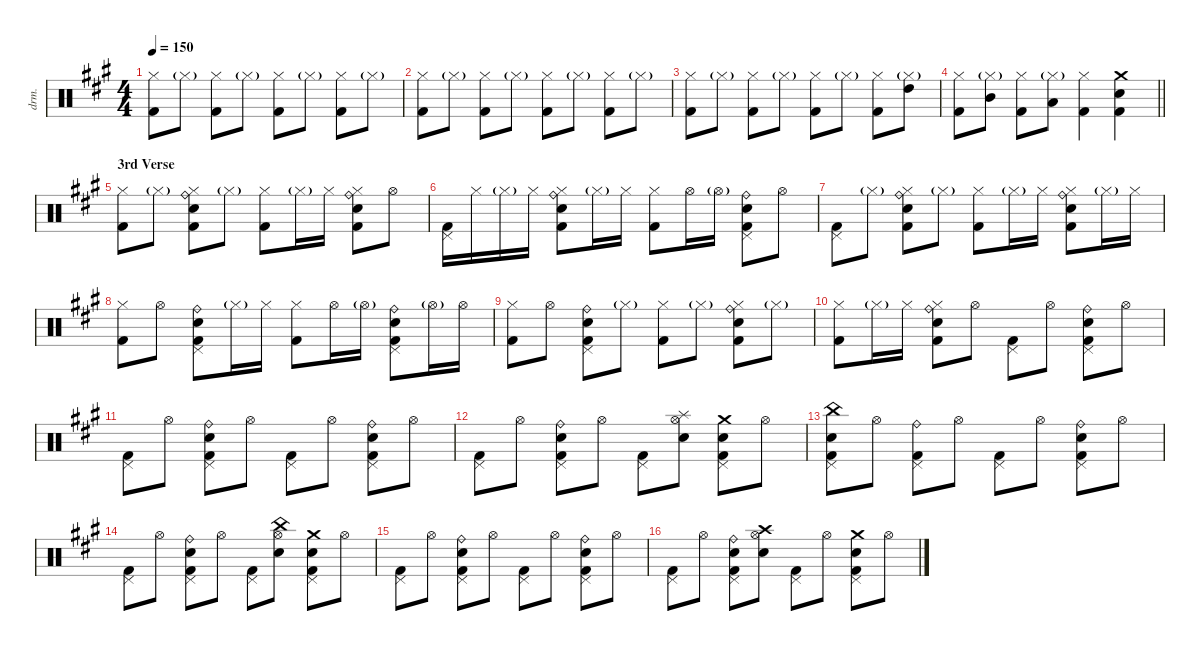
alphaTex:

\defaultSystemsLayout 4
\hideDynamics
\bracketExtendMode nobrackets
\otherSystemsTrackNameOrientation horizontal
\track ("Drums" "drm.") {instrument percussion}
\staff {score}
\articulation defaults
\ts (4 4)
\tempo 150
\clef neutral
\ks a
("Kick (hit) 2"{acc forcenatural} "Hi-Hat (closed)"{acc forcenatural}).8{dy fff} "Hi-Hat (closed)"{g acc forcenatural}.8{dy p} ("Kick (hit) 2"{acc forcenatural} "Hi-Hat (closed)"{acc forcenatural}).8{dy fff} "Hi-Hat (closed)"{g acc forcenatural}.8{dy p} ("Kick (hit) 2"{acc forcenatural} "Hi-Hat (closed)"{acc forcenatural}).8{dy fff} "Hi-Hat (closed)"{g acc forcenatural}.8{dy p} ("Kick (hit) 2"{acc forcenatural} "Hi-Hat (closed)"{acc forcenatural}).8{dy fff} "Hi-Hat (closed)"{g acc forcenatural}.8{dy p} |
("Kick (hit) 2"{acc forcenatural} "Hi-Hat (closed)"{acc forcenatural}).8{dy fff} "Hi-Hat (closed)"{g acc forcenatural}.8{dy p} ("Kick (hit) 2"{acc forcenatural} "Hi-Hat (closed)"{acc forcenatural}).8{dy fff} "Hi-Hat (closed)"{g acc forcenatural}.8{dy p} ("Kick (hit) 2"{acc forcenatural} "Hi-Hat (closed)"{acc forcenatural}).8{dy fff} "Hi-Hat (closed)"{g acc forcenatural}.8{dy p} ("Kick (hit) 2"{acc forcenatural} "Hi-Hat (closed)"{acc forcenatural}).8{dy fff} "Hi-Hat (closed)"{g acc forcenatural}.8{dy p} |
("Kick (hit) 2"{acc forcenatural} "Hi-Hat (closed)"{acc forcenatural}).8{dy fff} "Hi-Hat (closed)"{g acc forcenatural}.8{dy p} ("Kick (hit) 2"{acc forcenatural} "Hi-Hat (closed)"{acc forcenatural}).8{dy fff} "Hi-Hat (closed)"{g acc forcenatural}.8{dy p} ("Kick (hit) 2"{acc forcenatural} "Hi-Hat (closed)"{acc forcenatural}).8{dy fff} "Hi-Hat (closed)"{g acc forcenatural}.8{dy p} ("Kick (hit) 2"{acc forcenatural} "Hi-Hat (closed)"{acc forcenatural}).8{dy fff} ("Hi-Hat (closed)"{g acc forcenatural} "High Tom (hit)"{acc forcenatural}).8{dy mp} |
\barLineRight lightlight
("Kick (hit) 2"{acc forcenatural} "Hi-Hat (closed)"{acc forcenatural}).8{dy fff} ("Hi-Hat (closed)"{g acc forcenatural} "Mid Tom (hit)"{acc forcenatural}).8{dy mf} ("Kick (hit) 2"{acc forcenatural} "Hi-Hat (closed)"{acc forcenatural}).8{dy fff} ("Hi-Hat (closed)"{g acc forcenatural} "Low Tom (hit)"{acc forcenatural}).8{dy f} ("Kick (hit) 2"{acc forcenatural} "Hi-Hat (closed)"{acc forcenatural}).4{dy fff} ("Kick (hit) 2"{acc forcenatural} "Snare (hit) 2"{acc forcenatural} "Crash medium (hit)"{acc forcenatural}).4 |
\section ("" "3rd Verse")
("Kick (hit) 2"{acc forcenatural} "Hi-Hat (closed)"{acc forcenatural}).8 "Hi-Hat (closed)"{g acc forcenatural}.8{dy p} ("Kick (hit) 2"{acc forcenatural} "Snare (hit) 2"{acc forcenatural} "Hi-Hat (closed)"{acc forcenatural} "Ride (bell)"{acc forcenatural}).8{dy fff} "Hi-Hat (closed)"{g acc forcenatural}.8{dy p} ("Kick (hit) 2"{acc forcenatural} "Hi-Hat (closed)"{acc forcenatural}).8{dy fff} "Hi-Hat (closed)"{g acc forcenatural}.16{dy p} "Hi-Hat (closed)"{acc forcenatural}.16{dy mf} ("Kick (hit) 2"{acc forcenatural} "Snare (hit) 2"{acc forcenatural} "Hi-Hat (closed)"{acc forcenatural} "Ride (bell)"{acc forcenatural}).8{dy fff} "Hi-Hat (open)"{acc forcenatural}.8{dy mp} |
("Kick (hit) 2"{acc forcenatural} "Pedal Hi-Hat (hit)"{acc forcenatural}).16{dy fff} "Hi-Hat (closed)"{acc forcenatural}.16{dy pp} "Hi-Hat (closed)"{g acc forcenatural}.16{dy p} "Hi-Hat (closed)"{acc forcenatural}.16{dy mf} ("Kick (hit) 2"{acc forcenatural} "Snare (hit) 2"{acc forcenatural} "Hi-Hat (closed)"{acc forcenatural} "Ride (bell)"{acc forcenatural}).8{dy fff} "Hi-Hat (closed)"{g acc forcenatural}.16{dy p} "Hi-Hat (closed)"{acc forcenatural}.16{dy mf} ("Kick (hit) 2"{acc forcenatural} "Hi-Hat (closed)"{acc forcenatural}).8{dy fff} "Hi-Hat (open)"{acc forcenatural}.16{dy mp} "Hi-Hat (open)"{g acc forcenatural}.16{dy p} ("Kick (hit) 2"{acc forcenatural} "Snare (hit) 2"{acc forcenatural} "Pedal Hi-Hat (hit)"{acc forcenatural} "Ride (bell)"{acc forcenatural}).8{dy fff} "Hi-Hat (open)"{acc forcenatural}.8{dy mp} |
("Kick (hit) 2"{acc forcenatural} "Pedal Hi-Hat (hit)"{acc forcenatural}).8{dy fff} "Hi-Hat (closed)"{g acc forcenatural}.8{dy p} ("Kick (hit) 2"{acc forcenatural} "Snare (hit) 2"{acc forcenatural} "Hi-Hat (closed)"{acc forcenatural} "Ride (bell)"{acc forcenatural}).8{dy fff} "Hi-Hat (closed)"{g acc forcenatural}.8{dy p} ("Kick (hit) 2"{acc forcenatural} "Hi-Hat (closed)"{acc forcenatural}).8{dy fff} "Hi-Hat (closed)"{g acc forcenatural}.16{dy p} "Hi-Hat (closed)"{acc forcenatural}.16{dy mf} ("Kick (hit) 2"{acc forcenatural} "Snare (hit) 2"{acc forcenatural} "Hi-Hat (closed)"{acc forcenatural} "Ride (bell)"{acc forcenatural}).8{dy fff} "Hi-Hat (closed)"{g acc forcenatural}.16{dy p} "Hi-Hat (closed)"{acc forcenatural}.16{dy mf} |
("Kick (hit) 2"{acc forcenatural} "Hi-Hat (closed)"{acc forcenatural}).8{dy fff} "Hi-Hat (open)"{acc forcenatural}.8{dy mp} ("Kick (hit) 2"{acc forcenatural} "Snare (hit) 2"{acc forcenatural} "Pedal Hi-Hat (hit)"{acc forcenatural} "Ride (bell)"{acc forcenatural}).8{dy fff} "Hi-Hat (closed)"{g acc forcenatural}.16{dy p} "Hi-Hat (closed)"{acc forcenatural}.16{dy mf} ("Kick (hit) 2"{acc forcenatural} "Hi-Hat (closed)"{acc forcenatural}).8{dy fff} "Hi-Hat (open)"{acc forcenatural}.16{dy mp} "Hi-Hat (open)"{g acc forcenatural}.16 ("Kick (hit) 2"{acc forcenatural} "Snare (hit) 2"{acc forcenatural} "Pedal Hi-Hat (hit)"{acc forcenatural} "Ride (bell)"{acc forcenatural}).8{dy fff} "Hi-Hat (open)"{g acc forcenatural}.16{dy p} "Hi-Hat (open)"{acc forcenatural}.16{dy mf} |
("Kick (hit) 2"{acc forcenatural} "Hi-Hat (closed)"{acc forcenatural}).8{dy fff} "Hi-Hat (open)"{acc forcenatural}.8{dy mp} ("Kick (hit) 2"{acc forcenatural} "Snare (hit) 2"{acc forcenatural} "Pedal Hi-Hat (hit)"{acc forcenatural} "Ride (bell)"{acc forcenatural}).8{dy fff} "Hi-Hat (closed)"{g acc forcenatural}.8{dy p} ("Kick (hit) 2"{acc forcenatural} "Hi-Hat (closed)"{acc forcenatural}).8{dy fff} "Hi-Hat (closed)"{g acc forcenatural}.8{dy p} ("Kick (hit) 2"{acc forcenatural} "Snare (hit) 2"{acc forcenatural} "Hi-Hat (closed)"{acc forcenatural} "Ride (bell)"{acc forcenatural}).8{dy fff} "Hi-Hat (closed)"{g acc forcenatural}.8{dy p} |
("Kick (hit) 2"{acc forcenatural} "Hi-Hat (closed)"{acc forcenatural}).8{dy fff} "Hi-Hat (closed)"{g acc forcenatural}.16{dy p} "Hi-Hat (closed)"{acc forcenatural}.16{dy mf} ("Kick (hit) 2"{acc forcenatural} "Snare (hit) 2"{acc forcenatural} "Hi-Hat (closed)"{acc forcenatural} "Ride (bell)"{acc forcenatural}).8{dy fff} "Hi-Hat (open)"{acc forcenatural}.8{dy mp} ("Kick (hit) 2"{acc forcenatural} "Pedal Hi-Hat (hit)"{acc forcenatural}).8{dy fff} "Hi-Hat (open)"{acc forcenatural}.8{dy mp} ("Kick (hit) 2"{acc forcenatural} "Snare (hit) 2"{acc forcenatural} "Pedal Hi-Hat (hit)"{acc forcenatural} "Ride (bell)"{acc forcenatural}).8{dy fff} "Hi-Hat (open)"{acc forcenatural}.8{dy mp} |
("Kick (hit) 2"{acc forcenatural} "Pedal Hi-Hat (hit)"{acc forcenatural}).8{dy fff} "Hi-Hat (open)"{acc forcenatural}.8{dy mp} ("Kick (hit) 2"{acc forcenatural} "Snare (hit) 2"{acc forcenatural} "Pedal Hi-Hat (hit)"{acc forcenatural} "Ride (bell)"{acc forcenatural}).8{dy fff} "Hi-Hat (open)"{acc forcenatural}.8{dy mp} ("Kick (hit) 2"{acc forcenatural} "Pedal Hi-Hat (hit)"{acc forcenatural}).8{dy fff} "Hi-Hat (open)"{acc forcenatural}.8{dy mp} ("Kick (hit) 2"{acc forcenatural} "Snare (hit) 2"{acc forcenatural} "Pedal Hi-Hat (hit)"{acc forcenatural} "Ride (bell)"{acc forcenatural}).8{dy fff} "Hi-Hat (open)"{acc forcenatural}.8{dy mp} |
("Kick (hit) 2"{acc forcenatural} "Pedal Hi-Hat (hit)"{acc forcenatural}).8{dy fff} "Hi-Hat (open)"{acc forcenatural}.8{dy mp} ("Kick (hit) 2"{acc forcenatural} "Snare (hit) 2"{acc forcenatural} "Pedal Hi-Hat (hit)"{acc forcenatural} "Ride (bell)"{acc forcenatural}).8{dy fff} "Hi-Hat (open)"{acc forcenatural}.8{dy mp} ("Kick (hit) 2"{acc forcenatural} "Pedal Hi-Hat (hit)"{acc forcenatural}).8{dy fff} ("Snare (hit) 2"{acc forcenatural} "Hi-Hat (open)"{acc forcenatural} "Splash (hit)"{acc forcenatural}).8 ("Kick (hit) 2"{acc forcenatural} "Snare (hit) 2"{acc forcenatural} "Pedal Hi-Hat (hit)"{acc forcenatural} "Crash medium (hit)"{acc forcenatural}).8 "Hi-Hat (open)"{acc forcenatural}.8{dy mp} |
("Kick (hit) 2"{acc forcenatural} "Snare (hit) 2"{acc forcenatural} "Pedal Hi-Hat (hit)"{acc forcenatural} "China (hit)"{acc forcenatural}).8{dy fff} "Hi-Hat (open)"{acc forcenatural}.8{dy mp} ("Kick (hit) 2"{acc forcenatural} "Pedal Hi-Hat (hit)"{acc forcenatural} "Ride (bell)"{acc forcenatural}).8{dy fff} "Hi-Hat (open)"{acc forcenatural}.8{dy mp} ("Kick (hit) 2"{acc forcenatural} "Pedal Hi-Hat (hit)"{acc forcenatural}).8{dy fff} "Hi-Hat (open)"{acc forcenatural}.8{dy mp} ("Kick (hit) 2"{acc forcenatural} "Snare (hit) 2"{acc forcenatural} "Pedal Hi-Hat (hit)"{acc forcenatural} "Ride (bell)"{acc forcenatural}).8{dy fff} "Hi-Hat (open)"{acc forcenatural}.8{dy mp} |
("Kick (hit) 2"{acc forcenatural} "Pedal Hi-Hat (hit)"{acc forcenatural}).8{dy fff} "Hi-Hat (open)"{acc forcenatural}.8{dy mp} ("Kick (hit) 2"{acc forcenatural} "Snare (hit) 2"{acc forcenatural} "Pedal Hi-Hat (hit)"{acc forcenatural} "Ride (bell)"{acc forcenatural}).8{dy fff} "Hi-Hat (open)"{acc forcenatural}.8{dy mp} ("Kick (hit) 2"{acc forcenatural} "Pedal Hi-Hat (hit)"{acc forcenatural}).8{dy fff} ("Snare (hit) 2"{acc forcenatural} "Hi-Hat (open)"{acc forcenatural} "China (hit)"{acc forcenatural}).8 ("Kick (hit) 2"{acc forcenatural} "Snare (hit) 2"{acc forcenatural} "Pedal Hi-Hat (hit)"{acc forcenatural} "Crash medium (hit)"{acc forcenatural}).8 "Hi-Hat (open)"{acc forcenatural}.8{dy mp} |
("Kick (hit) 2"{acc forcenatural} "Pedal Hi-Hat (hit)"{acc forcenatural}).8{dy fff} "Hi-Hat (open)"{acc forcenatural}.8{dy mp} ("Kick (hit) 2"{acc forcenatural} "Snare (hit) 2"{acc forcenatural} "Pedal Hi-Hat (hit)"{acc forcenatural} "Ride (bell)"{acc forcenatural}).8{dy fff} "Hi-Hat (open)"{acc forcenatural}.8{dy mp} ("Kick (hit) 2"{acc forcenatural} "Pedal Hi-Hat (hit)"{acc forcenatural}).8{dy fff} "Hi-Hat (open)"{acc forcenatural}.8{dy mp} ("Kick (hit) 2"{acc forcenatural} "Snare (hit) 2"{acc forcenatural} "Pedal Hi-Hat (hit)"{acc forcenatural} "Ride (bell)"{acc forcenatural}).8{dy fff} "Hi-Hat (open)"{acc forcenatural}.8{dy mp} |
("Kick (hit) 2"{acc forcenatural} "Pedal Hi-Hat (hit)"{acc forcenatural}).8{dy fff} "Hi-Hat (open)"{acc forcenatural}.8{dy mp} ("Kick (hit) 2"{acc forcenatural} "Snare (hit) 2"{acc forcenatural} "Pedal Hi-Hat (hit)"{acc forcenatural} "Ride (bell)"{acc forcenatural}).8{dy fff} ("Snare (hit) 2"{acc forcenatural} "Hi-Hat (open)"{acc forcenatural} "Crash high (hit)"{acc forcenatural}).8 ("Kick (hit) 2"{acc forcenatural} "Pedal Hi-Hat (hit)"{acc forcenatural}).8 "Hi-Hat (open)"{acc forcenatural}.8{dy mp} ("Kick (hit) 2"{acc forcenatural} "Snare (hit) 2"{acc forcenatural} "Pedal Hi-Hat (hit)"{acc forcenatural} "Crash medium (hit)"{acc forcenatural}).8{dy fff} "Hi-Hat (open)"{acc forcenatural}.8{dy mp}
